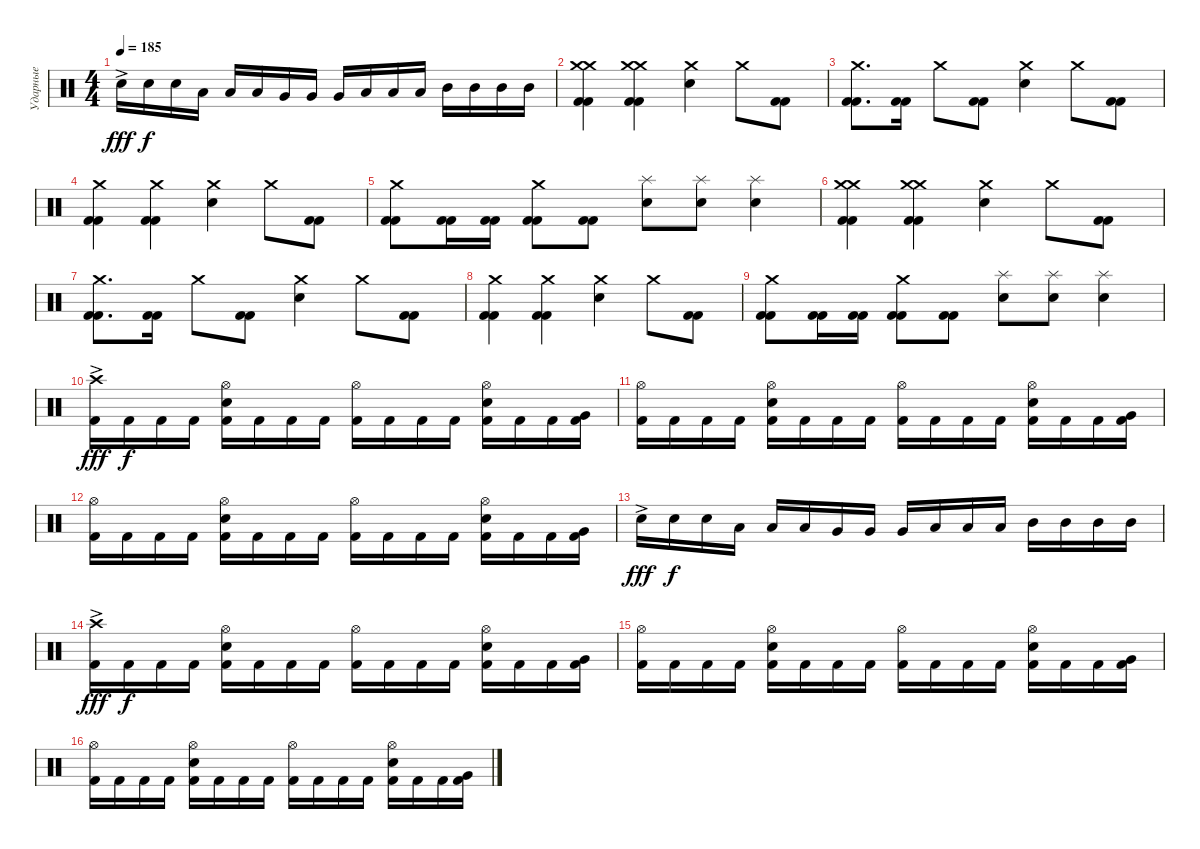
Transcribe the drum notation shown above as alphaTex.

\track ("Ударные" "Ударные") {instrument percussion}
\staff {score}
\articulation defaults
\ts (4 4)
\tempo 185
\clef neutral
\ks c "Electric Snare (hit)"{ac}.16{dy fff} "Electric Snare (hit)".16{dy f} "Electric Snare (hit)".16 "Low Floor Tom (hit)".16 "Low Floor Tom (hit)".16 "Low Floor Tom (hit)".16 "Very Low Tom (hit)".16 "Very Low Tom (hit)".16 "Very Low Tom (hit)".16 "Low Tom (hit)".16 "Low Tom (hit)".16 "Low Tom (hit)".16 "Mid Tom (hit)".16 "Mid Tom (hit)".16 "Mid Tom (hit)".16 "Mid Tom (hit)".16
|
("Crash medium (hit)" "Crash medium (hit)" "Kick (hit) 2" "Kick (hit) 2").4 ("Crash medium (hit)" "Crash medium (hit)" "Kick (hit) 2" "Kick (hit) 2").4 ("Crash medium (hit)" "Electric Snare (hit)").4 "Crash medium (hit)".8 ("Kick (hit) 2" "Kick (hit) 2").8 |
("Crash medium (hit)" "Kick (hit) 2" "Kick (hit) 2").8{d} ("Kick (hit) 2" "Kick (hit) 2").16 "Crash medium (hit)".8 ("Kick (hit) 2" "Kick (hit) 2").8 ("Crash medium (hit)" "Electric Snare (hit)").4 "Crash medium (hit)".8 ("Kick (hit) 2" "Kick (hit) 2").8 |
("Crash medium (hit)" "Kick (hit) 2" "Kick (hit) 2").4 ("Crash medium (hit)" "Kick (hit) 2" "Kick (hit) 2").4 ("Crash medium (hit)" "Electric Snare (hit)").4 "Crash medium (hit)".8 ("Kick (hit) 2" "Kick (hit) 2").8 |
("Crash medium (hit)" "Kick (hit) 2" "Kick (hit) 2").8 ("Kick (hit) 2" "Kick (hit) 2").16 ("Kick (hit) 2" "Kick (hit) 2").16 ("Crash medium (hit)" "Kick (hit) 2" "Kick (hit) 2").8 ("Kick (hit) 2" "Kick (hit) 2").8 ("Splash (hit)" "Electric Snare (hit)").8 ("Splash (hit)" "Electric Snare (hit)").8 ("Splash (hit)" "Electric Snare (hit)").4 |
("Crash medium (hit)" "Crash medium (hit)" "Kick (hit) 2" "Kick (hit) 2").4 ("Crash medium (hit)" "Crash medium (hit)" "Kick (hit) 2" "Kick (hit) 2").4 ("Crash medium (hit)" "Electric Snare (hit)").4 "Crash medium (hit)".8 ("Kick (hit) 2" "Kick (hit) 2").8 |
("Crash medium (hit)" "Kick (hit) 2" "Kick (hit) 2").8{d} ("Kick (hit) 2" "Kick (hit) 2").16 "Crash medium (hit)".8 ("Kick (hit) 2" "Kick (hit) 2").8 ("Crash medium (hit)" "Electric Snare (hit)").4 "Crash medium (hit)".8 ("Kick (hit) 2" "Kick (hit) 2").8 |
("Crash medium (hit)" "Kick (hit) 2" "Kick (hit) 2").4 ("Crash medium (hit)" "Kick (hit) 2" "Kick (hit) 2").4 ("Crash medium (hit)" "Electric Snare (hit)").4 "Crash medium (hit)".8 ("Kick (hit) 2" "Kick (hit) 2").8 |
("Crash medium (hit)" "Kick (hit) 2" "Kick (hit) 2").8 ("Kick (hit) 2" "Kick (hit) 2").16 ("Kick (hit) 2" "Kick (hit) 2").16 ("Crash medium (hit)" "Kick (hit) 2" "Kick (hit) 2").8 ("Kick (hit) 2" "Kick (hit) 2").8 ("Splash (hit)" "Electric Snare (hit)").8 ("Splash (hit)" "Electric Snare (hit)").8 ("Splash (hit)" "Electric Snare (hit)").4 |
("Crash high (hit)"{ac} "Kick (hit) 2").16{dy fff} "Kick (hit) 2".16{dy f} "Kick (hit) 2".16 "Kick (hit) 2".16 ("Hi-Hat (open)" "Electric Snare (hit)" "Kick (hit) 2").16 "Kick (hit) 2".16 "Kick (hit) 2".16 "Kick (hit) 2".16 ("Hi-Hat (open)" "Kick (hit) 2").16 "Kick (hit) 2".16 "Kick (hit) 2".16 "Kick (hit) 2".16 ("Hi-Hat (open)" "Electric Snare (hit)" "Kick (hit) 2").16 "Kick (hit) 2".16 "Kick (hit) 2".16 ("Very Low Tom (hit)" "Kick (hit) 2").16 |
("Hi-Hat (open)" "Kick (hit) 2").16 "Kick (hit) 2".16 "Kick (hit) 2".16 "Kick (hit) 2".16 ("Hi-Hat (open)" "Electric Snare (hit)" "Kick (hit) 2").16 "Kick (hit) 2".16 "Kick (hit) 2".16 "Kick (hit) 2".16 ("Hi-Hat (open)" "Kick (hit) 2").16 "Kick (hit) 2".16 "Kick (hit) 2".16 "Kick (hit) 2".16 ("Hi-Hat (open)" "Electric Snare (hit)" "Kick (hit) 2").16 "Kick (hit) 2".16 "Kick (hit) 2".16 ("Very Low Tom (hit)" "Kick (hit) 2").16 |
("Hi-Hat (open)" "Kick (hit) 2").16 "Kick (hit) 2".16 "Kick (hit) 2".16 "Kick (hit) 2".16 ("Hi-Hat (open)" "Electric Snare (hit)" "Kick (hit) 2").16 "Kick (hit) 2".16 "Kick (hit) 2".16 "Kick (hit) 2".16 ("Hi-Hat (open)" "Kick (hit) 2").16 "Kick (hit) 2".16 "Kick (hit) 2".16 "Kick (hit) 2".16 ("Hi-Hat (open)" "Electric Snare (hit)" "Kick (hit) 2").16 "Kick (hit) 2".16 "Kick (hit) 2".16 ("Very Low Tom (hit)" "Kick (hit) 2").16 |
"Electric Snare (hit)"{ac}.16{dy fff} "Electric Snare (hit)".16{dy f} "Electric Snare (hit)".16 "Low Floor Tom (hit)".16 "Low Floor Tom (hit)".16 "Low Floor Tom (hit)".16 "Very Low Tom (hit)".16 "Very Low Tom (hit)".16 "Very Low Tom (hit)".16 "Low Tom (hit)".16 "Low Tom (hit)".16 "Low Tom (hit)".16 "Mid Tom (hit)".16 "Mid Tom (hit)".16 "Mid Tom (hit)".16 "Mid Tom (hit)".16 |
("Crash high (hit)"{ac} "Kick (hit) 2").16{dy fff} "Kick (hit) 2".16{dy f} "Kick (hit) 2".16 "Kick (hit) 2".16 ("Hi-Hat (open)" "Electric Snare (hit)" "Kick (hit) 2").16 "Kick (hit) 2".16 "Kick (hit) 2".16 "Kick (hit) 2".16 ("Hi-Hat (open)" "Kick (hit) 2").16 "Kick (hit) 2".16 "Kick (hit) 2".16 "Kick (hit) 2".16 ("Hi-Hat (open)" "Electric Snare (hit)" "Kick (hit) 2").16 "Kick (hit) 2".16 "Kick (hit) 2".16 ("Very Low Tom (hit)" "Kick (hit) 2").16 |
("Hi-Hat (open)" "Kick (hit) 2").16 "Kick (hit) 2".16 "Kick (hit) 2".16 "Kick (hit) 2".16 ("Hi-Hat (open)" "Electric Snare (hit)" "Kick (hit) 2").16 "Kick (hit) 2".16 "Kick (hit) 2".16 "Kick (hit) 2".16 ("Hi-Hat (open)" "Kick (hit) 2").16 "Kick (hit) 2".16 "Kick (hit) 2".16 "Kick (hit) 2".16 ("Hi-Hat (open)" "Electric Snare (hit)" "Kick (hit) 2").16 "Kick (hit) 2".16 "Kick (hit) 2".16 ("Very Low Tom (hit)" "Kick (hit) 2").16 |
("Hi-Hat (open)" "Kick (hit) 2").16 "Kick (hit) 2".16 "Kick (hit) 2".16 "Kick (hit) 2".16 ("Hi-Hat (open)" "Electric Snare (hit)" "Kick (hit) 2").16 "Kick (hit) 2".16 "Kick (hit) 2".16 "Kick (hit) 2".16 ("Hi-Hat (open)" "Kick (hit) 2").16 "Kick (hit) 2".16 "Kick (hit) 2".16 "Kick (hit) 2".16 ("Hi-Hat (open)" "Electric Snare (hit)" "Kick (hit) 2").16 "Kick (hit) 2".16 "Kick (hit) 2".16 ("Very Low Tom (hit)" "Kick (hit) 2").16
